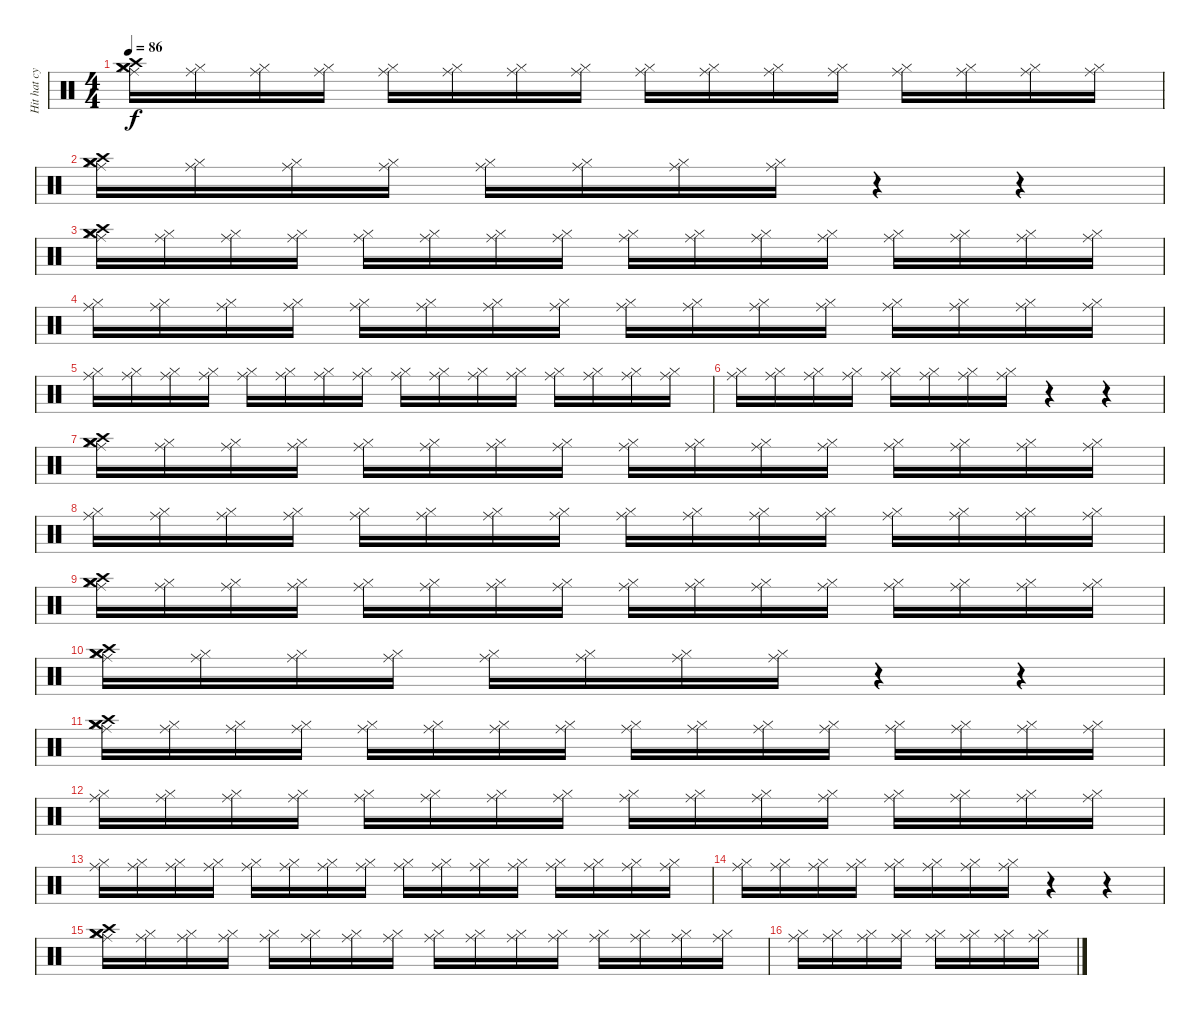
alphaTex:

\track ("Hit hat cymbal" "Hit hat cy") {instrument percussion}
\staff {score}
\articulation defaults
\ts (4 4)
\tempo 86
\clef neutral
\ks c
("Ride (middle)" "Hi-Hat (closed)" "Crash medium (hit)" "Crash medium (hit)" "Crash high (hit)").16{dy f} ("Ride (middle)" "Hi-Hat (closed)").16 ("Ride (middle)" "Hi-Hat (closed)").16 ("Ride (middle)" "Hi-Hat (closed)").16 ("Ride (middle)" "Hi-Hat (closed)").16 ("Ride (middle)" "Hi-Hat (closed)").16 ("Ride (middle)" "Hi-Hat (closed)").16 ("Ride (middle)" "Hi-Hat (closed)").16 ("Ride (middle)" "Hi-Hat (closed)").16 ("Ride (middle)" "Hi-Hat (closed)").16 ("Ride (middle)" "Hi-Hat (closed)").16 ("Ride (middle)" "Hi-Hat (closed)").16 ("Ride (middle)" "Hi-Hat (closed)").16 ("Ride (middle)" "Hi-Hat (closed)").16 ("Ride (middle)" "Hi-Hat (closed)").16 ("Ride (middle)" "Hi-Hat (closed)").16 |
("Ride (middle)" "Hi-Hat (closed)" "Crash medium (hit)" "Crash medium (hit)" "Crash high (hit)").16 ("Ride (middle)" "Hi-Hat (closed)").16 ("Ride (middle)" "Hi-Hat (closed)").16 ("Ride (middle)" "Hi-Hat (closed)").16 ("Ride (middle)" "Hi-Hat (closed)").16 ("Ride (middle)" "Hi-Hat (closed)").16 ("Ride (middle)" "Hi-Hat (closed)").16 ("Ride (middle)" "Hi-Hat (closed)").16 r.4 r.4 |
("Ride (middle)" "Hi-Hat (closed)" "Crash medium (hit)" "Crash medium (hit)" "Crash high (hit)").16 ("Ride (middle)" "Hi-Hat (closed)").16 ("Ride (middle)" "Hi-Hat (closed)").16 ("Ride (middle)" "Hi-Hat (closed)").16 ("Ride (middle)" "Hi-Hat (closed)").16 ("Ride (middle)" "Hi-Hat (closed)").16 ("Ride (middle)" "Hi-Hat (closed)").16 ("Ride (middle)" "Hi-Hat (closed)").16 ("Ride (middle)" "Hi-Hat (closed)").16 ("Ride (middle)" "Hi-Hat (closed)").16 ("Ride (middle)" "Hi-Hat (closed)").16 ("Ride (middle)" "Hi-Hat (closed)").16 ("Ride (middle)" "Hi-Hat (closed)").16 ("Ride (middle)" "Hi-Hat (closed)").16 ("Ride (middle)" "Hi-Hat (closed)").16 ("Ride (middle)" "Hi-Hat (closed)").16 |
("Ride (middle)" "Hi-Hat (closed)").16 ("Ride (middle)" "Hi-Hat (closed)").16 ("Ride (middle)" "Hi-Hat (closed)").16 ("Ride (middle)" "Hi-Hat (closed)").16 ("Ride (middle)" "Hi-Hat (closed)").16 ("Ride (middle)" "Hi-Hat (closed)").16 ("Ride (middle)" "Hi-Hat (closed)").16 ("Ride (middle)" "Hi-Hat (closed)").16 ("Ride (middle)" "Hi-Hat (closed)").16 ("Ride (middle)" "Hi-Hat (closed)").16 ("Ride (middle)" "Hi-Hat (closed)").16 ("Ride (middle)" "Hi-Hat (closed)").16 ("Ride (middle)" "Hi-Hat (closed)").16 ("Ride (middle)" "Hi-Hat (closed)").16 ("Ride (middle)" "Hi-Hat (closed)").16 ("Ride (middle)" "Hi-Hat (closed)").16 |
("Ride (middle)" "Hi-Hat (closed)").16 ("Ride (middle)" "Hi-Hat (closed)").16 ("Ride (middle)" "Hi-Hat (closed)").16 ("Ride (middle)" "Hi-Hat (closed)").16 ("Ride (middle)" "Hi-Hat (closed)").16 ("Ride (middle)" "Hi-Hat (closed)").16 ("Ride (middle)" "Hi-Hat (closed)").16 ("Ride (middle)" "Hi-Hat (closed)").16 ("Ride (middle)" "Hi-Hat (closed)").16 ("Ride (middle)" "Hi-Hat (closed)").16 ("Ride (middle)" "Hi-Hat (closed)").16 ("Ride (middle)" "Hi-Hat (closed)").16 ("Ride (middle)" "Hi-Hat (closed)").16 ("Ride (middle)" "Hi-Hat (closed)").16 ("Ride (middle)" "Hi-Hat (closed)").16 ("Ride (middle)" "Hi-Hat (closed)").16 |
("Ride (middle)" "Hi-Hat (closed)").16 ("Ride (middle)" "Hi-Hat (closed)").16 ("Ride (middle)" "Hi-Hat (closed)").16 ("Ride (middle)" "Hi-Hat (closed)").16 ("Ride (middle)" "Hi-Hat (closed)").16 ("Ride (middle)" "Hi-Hat (closed)").16 ("Ride (middle)" "Hi-Hat (closed)").16 ("Ride (middle)" "Hi-Hat (closed)").16 r.4 r.4 |
("Ride (middle)" "Hi-Hat (closed)" "Crash medium (hit)" "Crash medium (hit)" "Crash high (hit)").16 ("Ride (middle)" "Hi-Hat (closed)").16 ("Ride (middle)" "Hi-Hat (closed)").16 ("Ride (middle)" "Hi-Hat (closed)").16 ("Ride (middle)" "Hi-Hat (closed)").16 ("Ride (middle)" "Hi-Hat (closed)").16 ("Ride (middle)" "Hi-Hat (closed)").16 ("Ride (middle)" "Hi-Hat (closed)").16 ("Ride (middle)" "Hi-Hat (closed)").16 ("Ride (middle)" "Hi-Hat (closed)").16 ("Ride (middle)" "Hi-Hat (closed)").16 ("Ride (middle)" "Hi-Hat (closed)").16 ("Ride (middle)" "Hi-Hat (closed)").16 ("Ride (middle)" "Hi-Hat (closed)").16 ("Ride (middle)" "Hi-Hat (closed)").16 ("Ride (middle)" "Hi-Hat (closed)").16 |
("Ride (middle)" "Hi-Hat (closed)").16 ("Ride (middle)" "Hi-Hat (closed)").16 ("Ride (middle)" "Hi-Hat (closed)").16 ("Ride (middle)" "Hi-Hat (closed)").16 ("Ride (middle)" "Hi-Hat (closed)").16 ("Ride (middle)" "Hi-Hat (closed)").16 ("Ride (middle)" "Hi-Hat (closed)").16 ("Ride (middle)" "Hi-Hat (closed)").16 ("Ride (middle)" "Hi-Hat (closed)").16 ("Ride (middle)" "Hi-Hat (closed)").16 ("Ride (middle)" "Hi-Hat (closed)").16 ("Ride (middle)" "Hi-Hat (closed)").16 ("Ride (middle)" "Hi-Hat (closed)").16 ("Ride (middle)" "Hi-Hat (closed)").16 ("Ride (middle)" "Hi-Hat (closed)").16 ("Ride (middle)" "Hi-Hat (closed)").16 |
("Ride (middle)" "Hi-Hat (closed)" "Crash medium (hit)" "Crash medium (hit)" "Crash high (hit)").16 ("Ride (middle)" "Hi-Hat (closed)").16 ("Ride (middle)" "Hi-Hat (closed)").16 ("Ride (middle)" "Hi-Hat (closed)").16 ("Ride (middle)" "Hi-Hat (closed)").16 ("Ride (middle)" "Hi-Hat (closed)").16 ("Ride (middle)" "Hi-Hat (closed)").16 ("Ride (middle)" "Hi-Hat (closed)").16 ("Ride (middle)" "Hi-Hat (closed)").16 ("Ride (middle)" "Hi-Hat (closed)").16 ("Ride (middle)" "Hi-Hat (closed)").16 ("Ride (middle)" "Hi-Hat (closed)").16 ("Ride (middle)" "Hi-Hat (closed)").16 ("Ride (middle)" "Hi-Hat (closed)").16 ("Ride (middle)" "Hi-Hat (closed)").16 ("Ride (middle)" "Hi-Hat (closed)").16 |
("Ride (middle)" "Hi-Hat (closed)" "Crash medium (hit)" "Crash medium (hit)" "Crash high (hit)").16 ("Ride (middle)" "Hi-Hat (closed)").16 ("Ride (middle)" "Hi-Hat (closed)").16 ("Ride (middle)" "Hi-Hat (closed)").16 ("Ride (middle)" "Hi-Hat (closed)").16 ("Ride (middle)" "Hi-Hat (closed)").16 ("Ride (middle)" "Hi-Hat (closed)").16 ("Ride (middle)" "Hi-Hat (closed)").16 r.4 r.4 |
("Ride (middle)" "Hi-Hat (closed)" "Crash medium (hit)" "Crash medium (hit)" "Crash high (hit)").16 ("Ride (middle)" "Hi-Hat (closed)").16 ("Ride (middle)" "Hi-Hat (closed)").16 ("Ride (middle)" "Hi-Hat (closed)").16 ("Ride (middle)" "Hi-Hat (closed)").16 ("Ride (middle)" "Hi-Hat (closed)").16 ("Ride (middle)" "Hi-Hat (closed)").16 ("Ride (middle)" "Hi-Hat (closed)").16 ("Ride (middle)" "Hi-Hat (closed)").16 ("Ride (middle)" "Hi-Hat (closed)").16 ("Ride (middle)" "Hi-Hat (closed)").16 ("Ride (middle)" "Hi-Hat (closed)").16 ("Ride (middle)" "Hi-Hat (closed)").16 ("Ride (middle)" "Hi-Hat (closed)").16 ("Ride (middle)" "Hi-Hat (closed)").16 ("Ride (middle)" "Hi-Hat (closed)").16 |
("Ride (middle)" "Hi-Hat (closed)").16 ("Ride (middle)" "Hi-Hat (closed)").16 ("Ride (middle)" "Hi-Hat (closed)").16 ("Ride (middle)" "Hi-Hat (closed)").16 ("Ride (middle)" "Hi-Hat (closed)").16 ("Ride (middle)" "Hi-Hat (closed)").16 ("Ride (middle)" "Hi-Hat (closed)").16 ("Ride (middle)" "Hi-Hat (closed)").16 ("Ride (middle)" "Hi-Hat (closed)").16 ("Ride (middle)" "Hi-Hat (closed)").16 ("Ride (middle)" "Hi-Hat (closed)").16 ("Ride (middle)" "Hi-Hat (closed)").16 ("Ride (middle)" "Hi-Hat (closed)").16 ("Ride (middle)" "Hi-Hat (closed)").16 ("Ride (middle)" "Hi-Hat (closed)").16 ("Ride (middle)" "Hi-Hat (closed)").16 |
("Ride (middle)" "Hi-Hat (closed)").16 ("Ride (middle)" "Hi-Hat (closed)").16 ("Ride (middle)" "Hi-Hat (closed)").16 ("Ride (middle)" "Hi-Hat (closed)").16 ("Ride (middle)" "Hi-Hat (closed)").16 ("Ride (middle)" "Hi-Hat (closed)").16 ("Ride (middle)" "Hi-Hat (closed)").16 ("Ride (middle)" "Hi-Hat (closed)").16 ("Ride (middle)" "Hi-Hat (closed)").16 ("Ride (middle)" "Hi-Hat (closed)").16 ("Ride (middle)" "Hi-Hat (closed)").16 ("Ride (middle)" "Hi-Hat (closed)").16 ("Ride (middle)" "Hi-Hat (closed)").16 ("Ride (middle)" "Hi-Hat (closed)").16 ("Ride (middle)" "Hi-Hat (closed)").16 ("Ride (middle)" "Hi-Hat (closed)").16 |
("Ride (middle)" "Hi-Hat (closed)").16 ("Ride (middle)" "Hi-Hat (closed)").16 ("Ride (middle)" "Hi-Hat (closed)").16 ("Ride (middle)" "Hi-Hat (closed)").16 ("Ride (middle)" "Hi-Hat (closed)").16 ("Ride (middle)" "Hi-Hat (closed)").16 ("Ride (middle)" "Hi-Hat (closed)").16 ("Ride (middle)" "Hi-Hat (closed)").16 r.4 r.4 |
("Ride (middle)" "Hi-Hat (closed)" "Crash medium (hit)" "Crash medium (hit)" "Crash high (hit)").16 ("Ride (middle)" "Hi-Hat (closed)").16 ("Ride (middle)" "Hi-Hat (closed)").16 ("Ride (middle)" "Hi-Hat (closed)").16 ("Ride (middle)" "Hi-Hat (closed)").16 ("Ride (middle)" "Hi-Hat (closed)").16 ("Ride (middle)" "Hi-Hat (closed)").16 ("Ride (middle)" "Hi-Hat (closed)").16 ("Ride (middle)" "Hi-Hat (closed)").16 ("Ride (middle)" "Hi-Hat (closed)").16 ("Ride (middle)" "Hi-Hat (closed)").16 ("Ride (middle)" "Hi-Hat (closed)").16 ("Ride (middle)" "Hi-Hat (closed)").16 ("Ride (middle)" "Hi-Hat (closed)").16 ("Ride (middle)" "Hi-Hat (closed)").16 ("Ride (middle)" "Hi-Hat (closed)").16 |
("Ride (middle)" "Hi-Hat (closed)").16 ("Ride (middle)" "Hi-Hat (closed)").16 ("Ride (middle)" "Hi-Hat (closed)").16 ("Ride (middle)" "Hi-Hat (closed)").16 ("Ride (middle)" "Hi-Hat (closed)").16 ("Ride (middle)" "Hi-Hat (closed)").16 ("Ride (middle)" "Hi-Hat (closed)").16 ("Ride (middle)" "Hi-Hat (closed)").16
